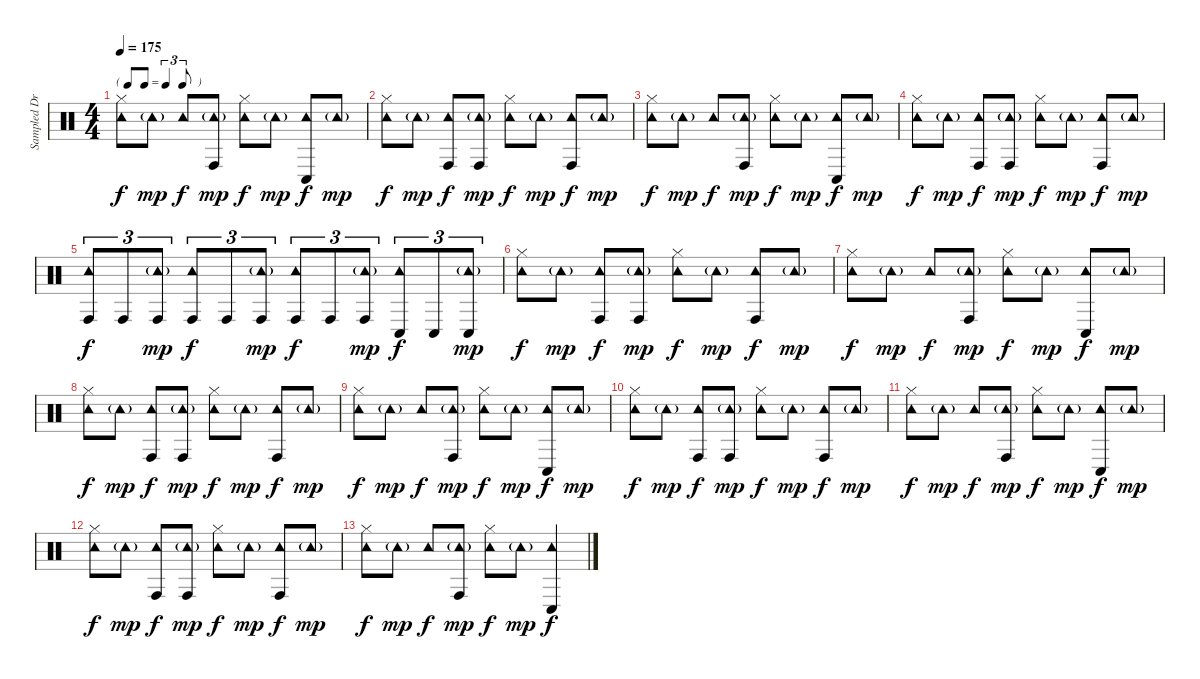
\track ("Sampled Drums" "Sampled Dr") {instrument percussion}
\staff {score}
\articulation defaults
\ts (4 4)
\tf triplet8th
\tempo 175
\clef neutral
\ks c
("Tambourine (hit)" "Hi-Hat (closed)").8{dy f} "Tambourine (hit)"{g}.8{dy mp} "Tambourine (hit)".8{dy f} ("Tambourine (hit)"{g} "Conga high (hit)").8{dy mp} ("Tambourine (hit)" "Hi-Hat (closed)").8{dy f} "Tambourine (hit)"{g}.8{dy mp} ("Tambourine (hit)" "Conga low (hit)").8{dy f} "Tambourine (hit)"{g}.8{dy mp} |
("Tambourine (hit)" "Hi-Hat (closed)").8{dy f} "Tambourine (hit)"{g}.8{dy mp} ("Tambourine (hit)" "Conga high (hit)").8{dy f} ("Tambourine (hit)"{g} "Conga high (hit)").8{dy mp} ("Tambourine (hit)" "Hi-Hat (closed)").8{dy f} "Tambourine (hit)"{g}.8{dy mp} ("Tambourine (hit)" "Conga high (hit)").8{dy f} "Tambourine (hit)"{g}.8{dy mp} |
("Tambourine (hit)" "Hi-Hat (closed)").8{dy f} "Tambourine (hit)"{g}.8{dy mp} "Tambourine (hit)".8{dy f} ("Tambourine (hit)"{g} "Conga high (hit)").8{dy mp} ("Tambourine (hit)" "Hi-Hat (closed)").8{dy f} "Tambourine (hit)"{g}.8{dy mp} ("Tambourine (hit)" "Conga low (hit)").8{dy f} "Tambourine (hit)"{g}.8{dy mp} |
("Tambourine (hit)" "Hi-Hat (closed)").8{dy f} "Tambourine (hit)"{g}.8{dy mp} ("Tambourine (hit)" "Conga high (hit)").8{dy f} ("Tambourine (hit)"{g} "Conga high (hit)").8{dy mp} ("Tambourine (hit)" "Hi-Hat (closed)").8{dy f} "Tambourine (hit)"{g}.8{dy mp} ("Tambourine (hit)" "Conga high (hit)").8{dy f} "Tambourine (hit)"{g}.8{dy mp} |
("Tambourine (hit)" "Conga high (hit)").8{tu (3 2) dy f} "Conga high (hit)".8{tu (3 2)} ("Tambourine (hit)"{g} "Conga high (hit)").8{tu (3 2) dy mp} ("Tambourine (hit)" "Conga high (hit)").8{tu (3 2) dy f} "Conga high (hit)".8{tu (3 2)} ("Tambourine (hit)"{g} "Conga high (hit)").8{tu (3 2) dy mp} ("Tambourine (hit)" "Conga high (hit)").8{tu (3 2) dy f} "Conga high (hit)".8{tu (3 2)} ("Tambourine (hit)"{g} "Conga high (hit)").8{tu (3 2) dy mp} ("Tambourine (hit)" "Conga low (hit)").8{tu (3 2) dy f} "Conga low (hit)".8{tu (3 2)} ("Tambourine (hit)"{g} "Conga low (hit)").8{tu (3 2) dy mp} |
("Tambourine (hit)" "Hi-Hat (closed)").8{dy f} "Tambourine (hit)"{g}.8{dy mp} ("Tambourine (hit)" "Conga high (hit)").8{dy f} ("Tambourine (hit)"{g} "Conga high (hit)").8{dy mp} ("Tambourine (hit)" "Hi-Hat (closed)").8{dy f} "Tambourine (hit)"{g}.8{dy mp} ("Tambourine (hit)" "Conga high (hit)").8{dy f} "Tambourine (hit)"{g}.8{dy mp} |
("Tambourine (hit)" "Hi-Hat (closed)").8{dy f} "Tambourine (hit)"{g}.8{dy mp} "Tambourine (hit)".8{dy f} ("Tambourine (hit)"{g} "Conga high (hit)").8{dy mp} ("Tambourine (hit)" "Hi-Hat (closed)").8{dy f} "Tambourine (hit)"{g}.8{dy mp} ("Tambourine (hit)" "Conga low (hit)").8{dy f} "Tambourine (hit)"{g}.8{dy mp} |
("Tambourine (hit)" "Hi-Hat (closed)").8{dy f} "Tambourine (hit)"{g}.8{dy mp} ("Tambourine (hit)" "Conga high (hit)").8{dy f} ("Tambourine (hit)"{g} "Conga high (hit)").8{dy mp} ("Tambourine (hit)" "Hi-Hat (closed)").8{dy f} "Tambourine (hit)"{g}.8{dy mp} ("Tambourine (hit)" "Conga high (hit)").8{dy f} "Tambourine (hit)"{g}.8{dy mp} |
("Tambourine (hit)" "Hi-Hat (closed)").8{dy f} "Tambourine (hit)"{g}.8{dy mp} "Tambourine (hit)".8{dy f} ("Tambourine (hit)"{g} "Conga high (hit)").8{dy mp} ("Tambourine (hit)" "Hi-Hat (closed)").8{dy f} "Tambourine (hit)"{g}.8{dy mp} ("Tambourine (hit)" "Conga low (hit)").8{dy f} "Tambourine (hit)"{g}.8{dy mp} |
("Tambourine (hit)" "Hi-Hat (closed)").8{dy f} "Tambourine (hit)"{g}.8{dy mp} ("Tambourine (hit)" "Conga high (hit)").8{dy f} ("Tambourine (hit)"{g} "Conga high (hit)").8{dy mp} ("Tambourine (hit)" "Hi-Hat (closed)").8{dy f} "Tambourine (hit)"{g}.8{dy mp} ("Tambourine (hit)" "Conga high (hit)").8{dy f} "Tambourine (hit)"{g}.8{dy mp} |
("Tambourine (hit)" "Hi-Hat (closed)").8{dy f} "Tambourine (hit)"{g}.8{dy mp} "Tambourine (hit)".8{dy f} ("Tambourine (hit)"{g} "Conga high (hit)").8{dy mp} ("Tambourine (hit)" "Hi-Hat (closed)").8{dy f} "Tambourine (hit)"{g}.8{dy mp} ("Tambourine (hit)" "Conga low (hit)").8{dy f} "Tambourine (hit)"{g}.8{dy mp} |
("Tambourine (hit)" "Hi-Hat (closed)").8{dy f} "Tambourine (hit)"{g}.8{dy mp} ("Tambourine (hit)" "Conga high (hit)").8{dy f} ("Tambourine (hit)"{g} "Conga high (hit)").8{dy mp} ("Tambourine (hit)" "Hi-Hat (closed)").8{dy f} "Tambourine (hit)"{g}.8{dy mp} ("Tambourine (hit)" "Conga high (hit)").8{dy f} "Tambourine (hit)"{g}.8{dy mp} |
("Tambourine (hit)" "Hi-Hat (closed)").8{dy f} "Tambourine (hit)"{g}.8{dy mp} "Tambourine (hit)".8{dy f} ("Tambourine (hit)"{g} "Conga high (hit)").8{dy mp} ("Tambourine (hit)" "Hi-Hat (closed)").8{dy f} "Tambourine (hit)"{g}.8{dy mp} ("Tambourine (hit)" "Conga low (hit)").4{dy f}
